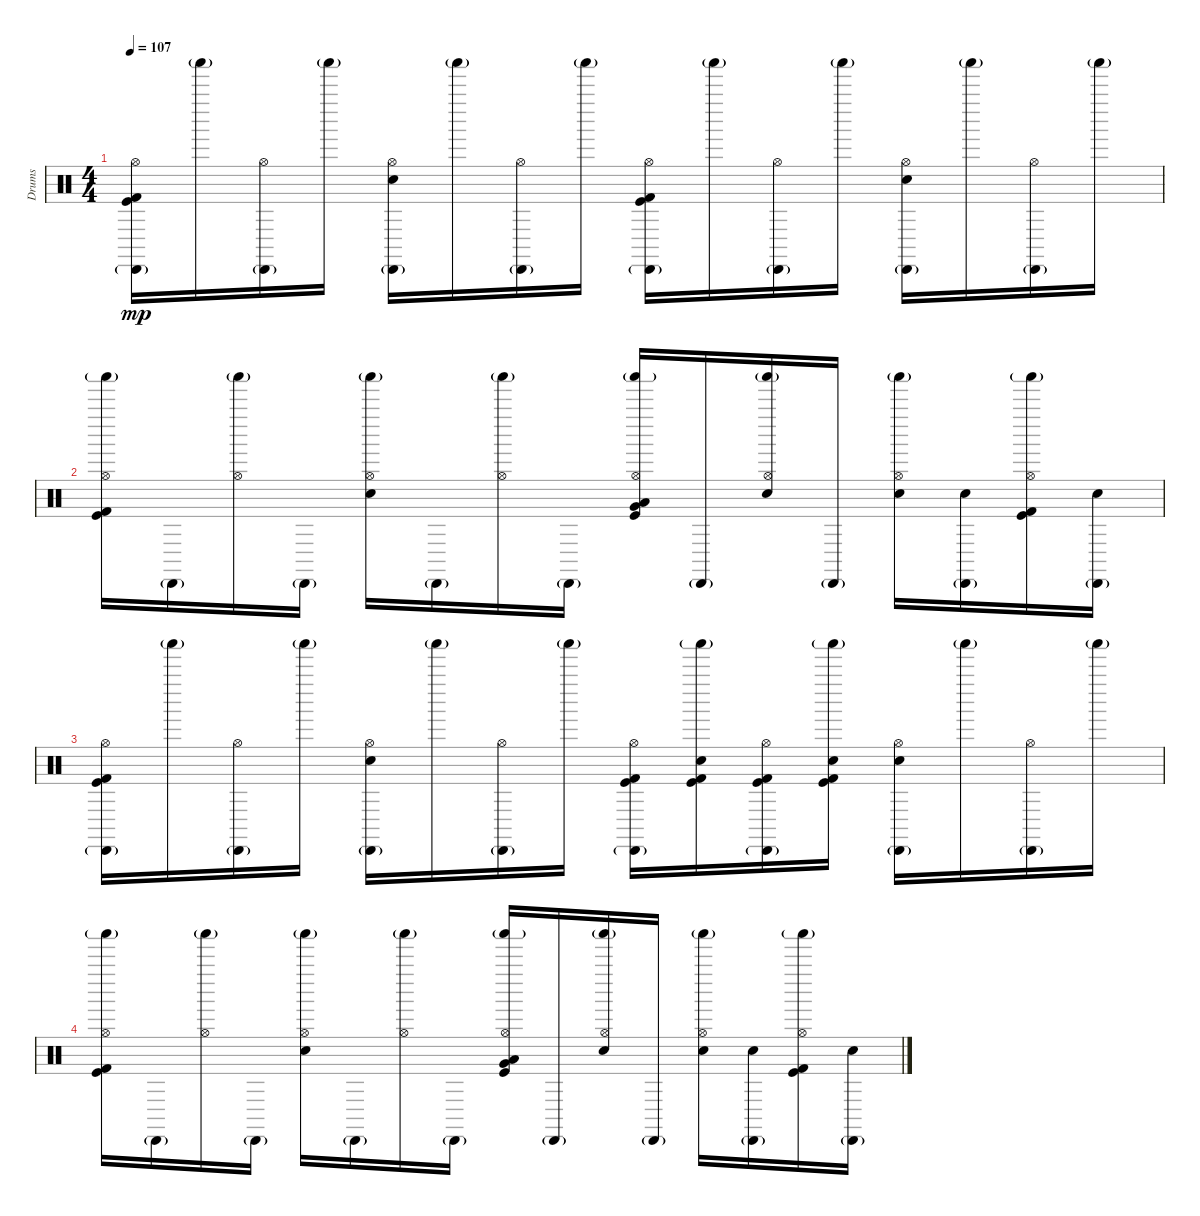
\track ("Drums" "Drums") {instrument percussion}
\staff {score}
\articulation defaults
\ts (4 4)
\tempo 107
\clef neutral
\ks c
("Hi-Hat (open)" "Cabasa (hit)"{g} "Kick (hit) 2" "Kick (hit)").16{dy mp volume 12} "Shaker (hit)"{g}.16 ("Hi-Hat (open)" "Cabasa (hit)"{g}).16 "Shaker (hit)"{g}.16 ("Hi-Hat (open)" "Cabasa (hit)"{g} "Electric Snare (hit)").16 "Shaker (hit)"{g}.16 ("Hi-Hat (open)" "Cabasa (hit)"{g}).16 "Shaker (hit)"{g}.16 ("Hi-Hat (open)" "Cabasa (hit)"{g} "Kick (hit) 2" "Kick (hit)").16 "Shaker (hit)"{g}.16 ("Hi-Hat (open)" "Cabasa (hit)"{g}).16 "Shaker (hit)"{g}.16 ("Hi-Hat (open)" "Cabasa (hit)"{g} "Electric Snare (hit)").16 "Shaker (hit)"{g}.16 ("Hi-Hat (open)" "Cabasa (hit)"{g}).16 "Shaker (hit)"{g}.16 |
("Hi-Hat (open)" "Shaker (hit)"{g} "Kick (hit) 2" "Kick (hit)").16 "Cabasa (hit)"{g}.16 ("Hi-Hat (open)" "Shaker (hit)"{g}).16 "Cabasa (hit)"{g}.16 ("Hi-Hat (open)" "Shaker (hit)"{g} "Electric Snare (hit)").16 "Cabasa (hit)"{g}.16 ("Hi-Hat (open)" "Shaker (hit)"{g}).16 "Cabasa (hit)"{g}.16 ("Hi-Hat (open)" "Shaker (hit)"{g} "Kick (hit)" "Very Low Tom (hit)" "Low Tom (hit)").16 "Cabasa (hit)"{g}.16 ("Hi-Hat (open)" "Shaker (hit)"{g} "Electric Snare (hit)").16 "Cabasa (hit)"{g}.16 ("Hi-Hat (open)" "Shaker (hit)"{g} "Electric Snare (hit)").16 ("Cabasa (hit)"{g} "Electric Snare (hit)").16 ("Hi-Hat (open)" "Shaker (hit)"{g} "Kick (hit) 2" "Kick (hit)").16 ("Cabasa (hit)"{g} "Electric Snare (hit)").16 |
("Hi-Hat (open)" "Cabasa (hit)"{g} "Kick (hit) 2" "Kick (hit)").16 "Shaker (hit)"{g}.16 ("Hi-Hat (open)" "Cabasa (hit)"{g}).16 "Shaker (hit)"{g}.16 ("Hi-Hat (open)" "Cabasa (hit)"{g} "Electric Snare (hit)").16 "Shaker (hit)"{g}.16 ("Hi-Hat (open)" "Cabasa (hit)"{g}).16 "Shaker (hit)"{g}.16 ("Hi-Hat (open)" "Cabasa (hit)"{g} "Kick (hit) 2" "Kick (hit)").16 ("Shaker (hit)"{g} "Snare (hit) 2" "Kick (hit) 2" "Kick (hit)").16 ("Hi-Hat (open)" "Cabasa (hit)"{g} "Kick (hit) 2" "Kick (hit)").16 ("Shaker (hit)"{g} "Snare (hit) 2" "Kick (hit) 2" "Kick (hit)").16 ("Hi-Hat (open)" "Cabasa (hit)"{g} "Electric Snare (hit)").16 "Shaker (hit)"{g}.16 ("Hi-Hat (open)" "Cabasa (hit)"{g}).16 "Shaker (hit)"{g}.16 |
("Hi-Hat (open)" "Shaker (hit)"{g} "Kick (hit) 2" "Kick (hit)").16 "Cabasa (hit)"{g}.16 ("Hi-Hat (open)" "Shaker (hit)"{g}).16 "Cabasa (hit)"{g}.16 ("Hi-Hat (open)" "Shaker (hit)"{g} "Electric Snare (hit)").16 "Cabasa (hit)"{g}.16 ("Hi-Hat (open)" "Shaker (hit)"{g}).16 "Cabasa (hit)"{g}.16 ("Hi-Hat (open)" "Shaker (hit)"{g} "Kick (hit)" "Very Low Tom (hit)" "Low Tom (hit)").16 "Cabasa (hit)"{g}.16 ("Hi-Hat (open)" "Shaker (hit)"{g} "Electric Snare (hit)").16 "Cabasa (hit)"{g}.16 ("Hi-Hat (open)" "Shaker (hit)"{g} "Electric Snare (hit)").16 ("Cabasa (hit)"{g} "Electric Snare (hit)").16 ("Hi-Hat (open)" "Shaker (hit)"{g} "Kick (hit) 2" "Kick (hit)").16 ("Cabasa (hit)"{g} "Electric Snare (hit)").16
